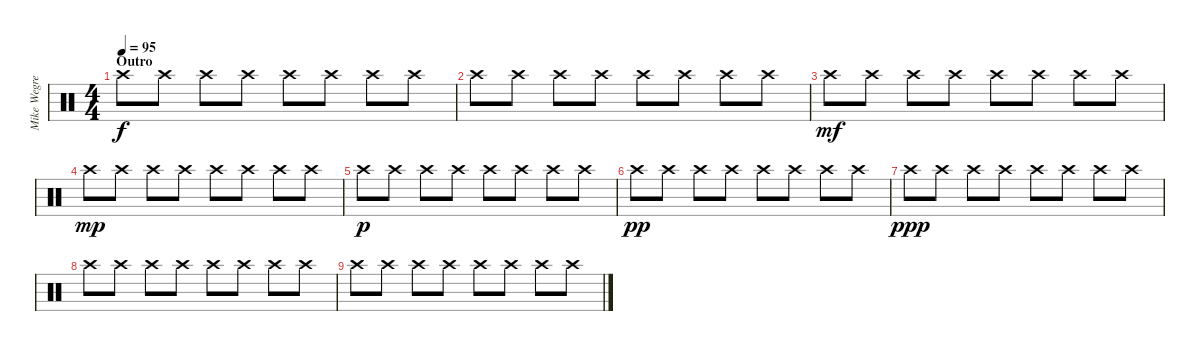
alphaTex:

\track ("Mike Wegren" "Mike Wegre") {instrument percussion}
\staff {score}
\articulation defaults
\ts (4 4)
\section ("" "Outro")
\tempo 95
\clef neutral
\ks c "Crash high (hit)".8{dy f} "Crash high (hit)".8 "Crash high (hit)".8 "Crash high (hit)".8 "Crash high (hit)".8 "Crash high (hit)".8 "Crash high (hit)".8 "Crash high (hit)".8
|
"Crash high (hit)".8 "Crash high (hit)".8 "Crash high (hit)".8 "Crash high (hit)".8 "Crash high (hit)".8 "Crash high (hit)".8 "Crash high (hit)".8 "Crash high (hit)".8 |
"Crash high (hit)".8{dy mf} "Crash high (hit)".8 "Crash high (hit)".8 "Crash high (hit)".8 "Crash high (hit)".8 "Crash high (hit)".8 "Crash high (hit)".8 "Crash high (hit)".8 |
"Crash high (hit)".8{dy mp} "Crash high (hit)".8 "Crash high (hit)".8 "Crash high (hit)".8 "Crash high (hit)".8 "Crash high (hit)".8 "Crash high (hit)".8 "Crash high (hit)".8 |
"Crash high (hit)".8{dy p} "Crash high (hit)".8 "Crash high (hit)".8 "Crash high (hit)".8 "Crash high (hit)".8 "Crash high (hit)".8 "Crash high (hit)".8 "Crash high (hit)".8 |
"Crash high (hit)".8{dy pp} "Crash high (hit)".8 "Crash high (hit)".8 "Crash high (hit)".8 "Crash high (hit)".8 "Crash high (hit)".8 "Crash high (hit)".8 "Crash high (hit)".8 |
"Crash high (hit)".8{dy ppp} "Crash high (hit)".8 "Crash high (hit)".8 "Crash high (hit)".8 "Crash high (hit)".8 "Crash high (hit)".8 "Crash high (hit)".8 "Crash high (hit)".8 |
"Crash high (hit)".8 "Crash high (hit)".8 "Crash high (hit)".8 "Crash high (hit)".8 "Crash high (hit)".8 "Crash high (hit)".8 "Crash high (hit)".8 "Crash high (hit)".8 |
"Crash high (hit)".8 "Crash high (hit)".8 "Crash high (hit)".8 "Crash high (hit)".8 "Crash high (hit)".8 "Crash high (hit)".8 "Crash high (hit)".8 "Crash high (hit)".8
